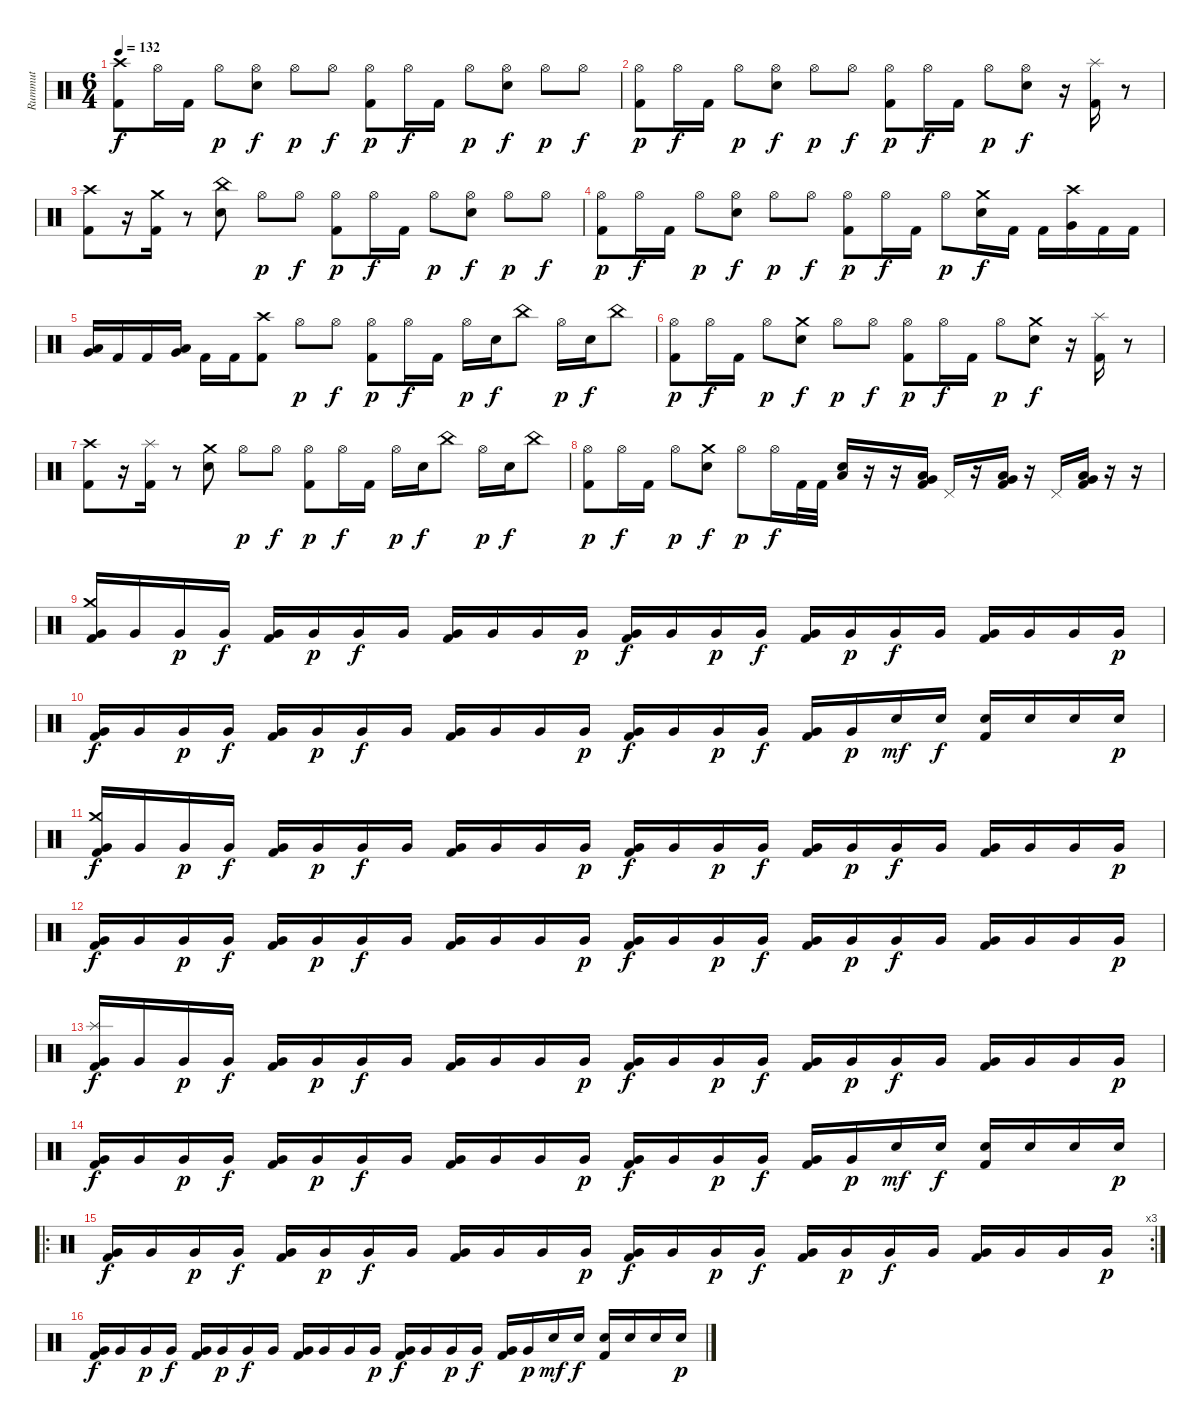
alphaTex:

\track ("Rummut" "Rummut") {instrument percussion}
\staff {score}
\articulation defaults
\ts (6 4)
\tempo 132
\clef neutral
\ks c
("Crash high (hit)" "Kick (hit) 2").8{dy f} "Hi-Hat (open)".16 "Kick (hit) 2".16 "Hi-Hat (open)".8{dy p} ("Hi-Hat (open)" "Electric Snare (hit)").8{dy f} "Hi-Hat (open)".8{dy p} "Hi-Hat (open)".8{dy f} ("Hi-Hat (open)" "Kick (hit) 2").8{dy p} "Hi-Hat (open)".16{dy f} "Kick (hit) 2".16 "Hi-Hat (open)".8{dy p} ("Hi-Hat (open)" "Electric Snare (hit)").8{dy f} "Hi-Hat (open)".8{dy p} "Hi-Hat (open)".8{dy f} |
("Hi-Hat (open)" "Kick (hit) 2").8{dy p} "Hi-Hat (open)".16{dy f} "Kick (hit) 2".16 "Hi-Hat (open)".8{dy p} ("Hi-Hat (open)" "Electric Snare (hit)").8{dy f} "Hi-Hat (open)".8{dy p} "Hi-Hat (open)".8{dy f} ("Hi-Hat (open)" "Kick (hit) 2").8{dy p} "Hi-Hat (open)".16{dy f} "Kick (hit) 2".16 "Hi-Hat (open)".8{dy p} ("Hi-Hat (open)" "Electric Snare (hit)").8{dy f} r.16 ("Splash (hit)" "Kick (hit) 2").16 r.8 |
("Crash high (hit)" "Kick (hit) 2").8 r.16 ("Crash medium (hit)" "Kick (hit) 2").16 r.8 ("China (hit)" "Electric Snare (hit)").8 "Hi-Hat (open)".8{dy p} "Hi-Hat (open)".8{dy f} ("Hi-Hat (open)" "Kick (hit) 2").8{dy p} "Hi-Hat (open)".16{dy f} "Kick (hit) 2".16 "Hi-Hat (open)".8{dy p} ("Hi-Hat (open)" "Electric Snare (hit)").8{dy f} "Hi-Hat (open)".8{dy p} "Hi-Hat (open)".8{dy f} |
("Hi-Hat (open)" "Kick (hit) 2").8{dy p} "Hi-Hat (open)".16{dy f} "Kick (hit) 2".16 "Hi-Hat (open)".8{dy p} ("Hi-Hat (open)" "Electric Snare (hit)").8{dy f} "Hi-Hat (open)".8{dy p} "Hi-Hat (open)".8{dy f} ("Hi-Hat (open)" "Kick (hit) 2").8{dy p} "Hi-Hat (open)".16{dy f} "Kick (hit) 2".16 "Hi-Hat (open)".8{dy p} ("Crash medium (hit)" "Electric Snare (hit)").16{dy f} "Kick (hit) 2".16 "Kick (hit) 2".16 ("Crash high (hit)" "Very Low Tom (hit)").16 "Kick (hit) 2".16 "Kick (hit) 2".16 |
("Very Low Tom (hit)" "Low Floor Tom (hit)").16 "Kick (hit) 2".16 "Kick (hit) 2".16 ("Very Low Tom (hit)" "Low Floor Tom (hit)").16 "Kick (hit) 2".16 "Kick (hit) 2".16 ("Crash high (hit)" "Kick (hit) 2").8 "Hi-Hat (open)".8{dy p} "Hi-Hat (open)".8{dy f} ("Hi-Hat (open)" "Kick (hit) 2").8{dy p} "Hi-Hat (open)".16{dy f} "Kick (hit) 2".16 "Hi-Hat (open)".16{dy p} "Electric Snare (hit)".16{dy f} "China (hit)".8 "Hi-Hat (open)".16{dy p} "Electric Snare (hit)".16{dy f} "China (hit)".8 |
("Hi-Hat (open)" "Kick (hit) 2").8{dy p} "Hi-Hat (open)".16{dy f} "Kick (hit) 2".16 "Hi-Hat (open)".8{dy p} ("Crash medium (hit)" "Electric Snare (hit)").8{dy f} "Hi-Hat (open)".8{dy p} "Hi-Hat (open)".8{dy f} ("Hi-Hat (open)" "Kick (hit) 2").8{dy p} "Hi-Hat (open)".16{dy f} "Kick (hit) 2".16 "Hi-Hat (open)".8{dy p} ("Crash medium (hit)" "Electric Snare (hit)").8{dy f} r.16 ("Splash (hit)" "Kick (hit) 2").16 r.8 |
("Crash high (hit)" "Kick (hit) 2").8 r.16 ("Splash (hit)" "Kick (hit) 2").16 r.8 ("Crash medium (hit)" "Electric Snare (hit)").8 "Hi-Hat (open)".8{dy p} "Hi-Hat (open)".8{dy f} ("Hi-Hat (open)" "Kick (hit) 2").8{dy p} "Hi-Hat (open)".16{dy f} "Kick (hit) 2".16 "Hi-Hat (open)".16{dy p} "Electric Snare (hit)".16{dy f} "China (hit)".8 "Hi-Hat (open)".16{dy p} "Electric Snare (hit)".16{dy f} "China (hit)".8 |
("Hi-Hat (open)" "Kick (hit) 2").8{dy p} "Hi-Hat (open)".16{dy f} "Kick (hit) 2".16 "Hi-Hat (open)".8{dy p} ("Crash medium (hit)" "Electric Snare (hit)").8{dy f} "Hi-Hat (open)".8{dy p} "Hi-Hat (open)".16{dy f} "Kick (hit) 2".32 "Kick (hit) 2".32 ("Low Floor Tom (hit)" "Electric Snare (hit)").16 r.16 r.16 ("Very Low Tom (hit)" "Low Floor Tom (hit)" "Kick (hit) 2").16 "Pedal Hi-Hat (hit)".16 r.16 ("Very Low Tom (hit)" "Low Floor Tom (hit)" "Kick (hit) 2").16 r.16 "Pedal Hi-Hat (hit)".16 ("Very Low Tom (hit)" "Low Floor Tom (hit)" "Kick (hit) 2").16 r.16 r.16 |
("Crash medium (hit)" "Very Low Tom (hit)" "Kick (hit) 2").16 "Very Low Tom (hit)".16 "Very Low Tom (hit)".16{dy p} "Very Low Tom (hit)".16{dy f} ("Very Low Tom (hit)" "Kick (hit) 2").16 "Very Low Tom (hit)".16{dy p} "Very Low Tom (hit)".16{dy f} "Very Low Tom (hit)".16 ("Very Low Tom (hit)" "Kick (hit) 2").16 "Very Low Tom (hit)".16 "Very Low Tom (hit)".16 "Very Low Tom (hit)".16{dy p} ("Very Low Tom (hit)" "Kick (hit) 2").16{dy f} "Very Low Tom (hit)".16 "Very Low Tom (hit)".16{dy p} "Very Low Tom (hit)".16{dy f} ("Very Low Tom (hit)" "Kick (hit) 2").16 "Very Low Tom (hit)".16{dy p} "Very Low Tom (hit)".16{dy f} "Very Low Tom (hit)".16 ("Very Low Tom (hit)" "Kick (hit) 2").16 "Very Low Tom (hit)".16 "Very Low Tom (hit)".16 "Very Low Tom (hit)".16{dy p} |
("Very Low Tom (hit)" "Kick (hit) 2").16{dy f} "Very Low Tom (hit)".16 "Very Low Tom (hit)".16{dy p} "Very Low Tom (hit)".16{dy f} ("Very Low Tom (hit)" "Kick (hit) 2").16 "Very Low Tom (hit)".16{dy p} "Very Low Tom (hit)".16{dy f} "Very Low Tom (hit)".16 ("Very Low Tom (hit)" "Kick (hit) 2").16 "Very Low Tom (hit)".16 "Very Low Tom (hit)".16 "Very Low Tom (hit)".16{dy p} ("Very Low Tom (hit)" "Kick (hit) 2").16{dy f} "Very Low Tom (hit)".16 "Very Low Tom (hit)".16{dy p} "Very Low Tom (hit)".16{dy f} ("Very Low Tom (hit)" "Kick (hit) 2").16 "Very Low Tom (hit)".16{dy p} "Electric Snare (hit)".16{dy mf} "Electric Snare (hit)".16{dy f} ("Electric Snare (hit)" "Kick (hit) 2").16 "Electric Snare (hit)".16 "Electric Snare (hit)".16 "Electric Snare (hit)".16{dy p} |
("Crash medium (hit)" "Very Low Tom (hit)" "Kick (hit) 2").16{dy f} "Very Low Tom (hit)".16 "Very Low Tom (hit)".16{dy p} "Very Low Tom (hit)".16{dy f} ("Very Low Tom (hit)" "Kick (hit) 2").16 "Very Low Tom (hit)".16{dy p} "Very Low Tom (hit)".16{dy f} "Very Low Tom (hit)".16 ("Very Low Tom (hit)" "Kick (hit) 2").16 "Very Low Tom (hit)".16 "Very Low Tom (hit)".16 "Very Low Tom (hit)".16{dy p} ("Very Low Tom (hit)" "Kick (hit) 2").16{dy f} "Very Low Tom (hit)".16 "Very Low Tom (hit)".16{dy p} "Very Low Tom (hit)".16{dy f} ("Very Low Tom (hit)" "Kick (hit) 2").16 "Very Low Tom (hit)".16{dy p} "Very Low Tom (hit)".16{dy f} "Very Low Tom (hit)".16 ("Very Low Tom (hit)" "Kick (hit) 2").16 "Very Low Tom (hit)".16 "Very Low Tom (hit)".16 "Very Low Tom (hit)".16{dy p} |
("Very Low Tom (hit)" "Kick (hit) 2").16{dy f} "Very Low Tom (hit)".16 "Very Low Tom (hit)".16{dy p} "Very Low Tom (hit)".16{dy f} ("Very Low Tom (hit)" "Kick (hit) 2").16 "Very Low Tom (hit)".16{dy p} "Very Low Tom (hit)".16{dy f} "Very Low Tom (hit)".16 ("Very Low Tom (hit)" "Kick (hit) 2").16 "Very Low Tom (hit)".16 "Very Low Tom (hit)".16 "Very Low Tom (hit)".16{dy p} ("Very Low Tom (hit)" "Kick (hit) 2").16{dy f} "Very Low Tom (hit)".16 "Very Low Tom (hit)".16{dy p} "Very Low Tom (hit)".16{dy f} ("Very Low Tom (hit)" "Kick (hit) 2").16 "Very Low Tom (hit)".16{dy p} "Very Low Tom (hit)".16{dy f} "Very Low Tom (hit)".16 ("Very Low Tom (hit)" "Kick (hit) 2").16 "Very Low Tom (hit)".16 "Very Low Tom (hit)".16 "Very Low Tom (hit)".16{dy p} |
("Splash (hit)" "Very Low Tom (hit)" "Kick (hit) 2").16{dy f} "Very Low Tom (hit)".16 "Very Low Tom (hit)".16{dy p} "Very Low Tom (hit)".16{dy f} ("Very Low Tom (hit)" "Kick (hit) 2").16 "Very Low Tom (hit)".16{dy p} "Very Low Tom (hit)".16{dy f} "Very Low Tom (hit)".16 ("Very Low Tom (hit)" "Kick (hit) 2").16 "Very Low Tom (hit)".16 "Very Low Tom (hit)".16 "Very Low Tom (hit)".16{dy p} ("Very Low Tom (hit)" "Kick (hit) 2").16{dy f} "Very Low Tom (hit)".16 "Very Low Tom (hit)".16{dy p} "Very Low Tom (hit)".16{dy f} ("Very Low Tom (hit)" "Kick (hit) 2").16 "Very Low Tom (hit)".16{dy p} "Very Low Tom (hit)".16{dy f} "Very Low Tom (hit)".16 ("Very Low Tom (hit)" "Kick (hit) 2").16 "Very Low Tom (hit)".16 "Very Low Tom (hit)".16 "Very Low Tom (hit)".16{dy p} |
("Very Low Tom (hit)" "Kick (hit) 2").16{dy f} "Very Low Tom (hit)".16 "Very Low Tom (hit)".16{dy p} "Very Low Tom (hit)".16{dy f} ("Very Low Tom (hit)" "Kick (hit) 2").16 "Very Low Tom (hit)".16{dy p} "Very Low Tom (hit)".16{dy f} "Very Low Tom (hit)".16 ("Very Low Tom (hit)" "Kick (hit) 2").16 "Very Low Tom (hit)".16 "Very Low Tom (hit)".16 "Very Low Tom (hit)".16{dy p} ("Very Low Tom (hit)" "Kick (hit) 2").16{dy f} "Very Low Tom (hit)".16 "Very Low Tom (hit)".16{dy p} "Very Low Tom (hit)".16{dy f} ("Very Low Tom (hit)" "Kick (hit) 2").16 "Very Low Tom (hit)".16{dy p} "Electric Snare (hit)".16{dy mf} "Electric Snare (hit)".16{dy f} ("Electric Snare (hit)" "Kick (hit) 2").16 "Electric Snare (hit)".16 "Electric Snare (hit)".16 "Electric Snare (hit)".16{dy p} |
\ro
\rc 3
("Very Low Tom (hit)" "Kick (hit) 2").16{dy f} "Very Low Tom (hit)".16 "Very Low Tom (hit)".16{dy p} "Very Low Tom (hit)".16{dy f} ("Very Low Tom (hit)" "Kick (hit) 2").16 "Very Low Tom (hit)".16{dy p} "Very Low Tom (hit)".16{dy f} "Very Low Tom (hit)".16 ("Very Low Tom (hit)" "Kick (hit) 2").16 "Very Low Tom (hit)".16 "Very Low Tom (hit)".16 "Very Low Tom (hit)".16{dy p} ("Very Low Tom (hit)" "Kick (hit) 2").16{dy f} "Very Low Tom (hit)".16 "Very Low Tom (hit)".16{dy p} "Very Low Tom (hit)".16{dy f} ("Very Low Tom (hit)" "Kick (hit) 2").16 "Very Low Tom (hit)".16{dy p} "Very Low Tom (hit)".16{dy f} "Very Low Tom (hit)".16 ("Very Low Tom (hit)" "Kick (hit) 2").16 "Very Low Tom (hit)".16 "Very Low Tom (hit)".16 "Very Low Tom (hit)".16{dy p} |
("Very Low Tom (hit)" "Kick (hit) 2").16{dy f} "Very Low Tom (hit)".16 "Very Low Tom (hit)".16{dy p} "Very Low Tom (hit)".16{dy f} ("Very Low Tom (hit)" "Kick (hit) 2").16 "Very Low Tom (hit)".16{dy p} "Very Low Tom (hit)".16{dy f} "Very Low Tom (hit)".16 ("Very Low Tom (hit)" "Kick (hit) 2").16 "Very Low Tom (hit)".16 "Very Low Tom (hit)".16 "Very Low Tom (hit)".16{dy p} ("Very Low Tom (hit)" "Kick (hit) 2").16{dy f} "Very Low Tom (hit)".16 "Very Low Tom (hit)".16{dy p} "Very Low Tom (hit)".16{dy f} ("Very Low Tom (hit)" "Kick (hit) 2").16 "Very Low Tom (hit)".16{dy p} "Electric Snare (hit)".16{dy mf} "Electric Snare (hit)".16{dy f} ("Electric Snare (hit)" "Kick (hit) 2").16 "Electric Snare (hit)".16 "Electric Snare (hit)".16 "Electric Snare (hit)".16{dy p}
